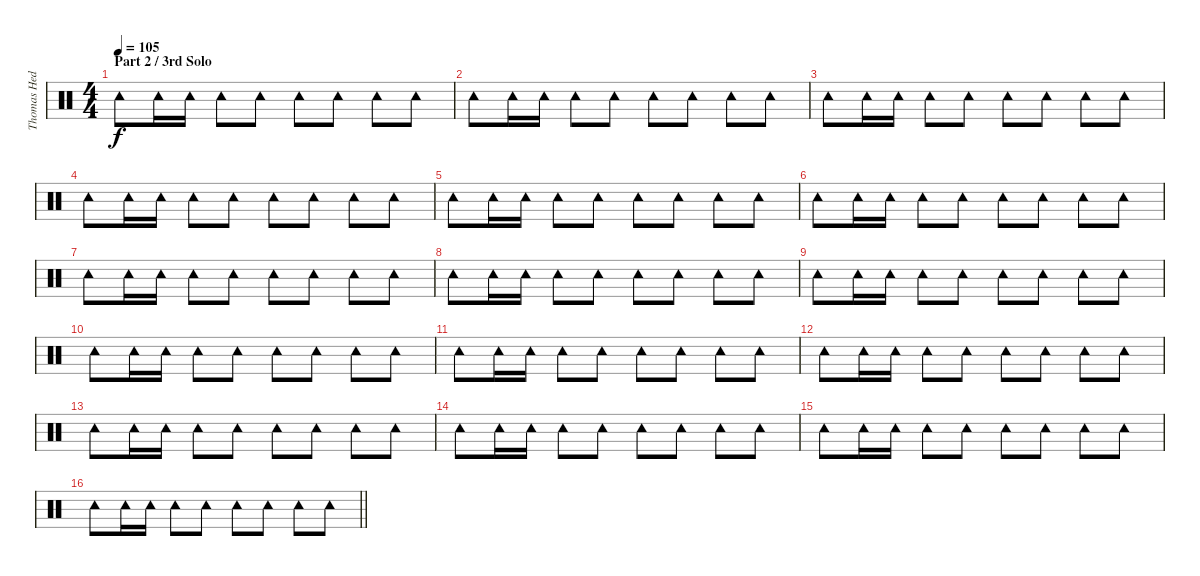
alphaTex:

\track ("Thomas Hedlund" "Thomas Hed") {instrument percussion}
\staff {score}
\articulation defaults
\ts (4 4)
\section ("" "Part 2 / 3rd Solo")
\tempo 105
\clef neutral
\ks c "Tambourine (hit)".8{dy f} "Tambourine (hit)".16 "Tambourine (hit)".16 "Tambourine (hit)".8 "Tambourine (hit)".8 "Tambourine (hit)".8 "Tambourine (hit)".8 "Tambourine (hit)".8 "Tambourine (hit)".8
|
"Tambourine (hit)".8 "Tambourine (hit)".16 "Tambourine (hit)".16 "Tambourine (hit)".8 "Tambourine (hit)".8 "Tambourine (hit)".8 "Tambourine (hit)".8 "Tambourine (hit)".8 "Tambourine (hit)".8 |
"Tambourine (hit)".8 "Tambourine (hit)".16 "Tambourine (hit)".16 "Tambourine (hit)".8 "Tambourine (hit)".8 "Tambourine (hit)".8 "Tambourine (hit)".8 "Tambourine (hit)".8 "Tambourine (hit)".8 |
"Tambourine (hit)".8 "Tambourine (hit)".16 "Tambourine (hit)".16 "Tambourine (hit)".8 "Tambourine (hit)".8 "Tambourine (hit)".8 "Tambourine (hit)".8 "Tambourine (hit)".8 "Tambourine (hit)".8 |
"Tambourine (hit)".8 "Tambourine (hit)".16 "Tambourine (hit)".16 "Tambourine (hit)".8 "Tambourine (hit)".8 "Tambourine (hit)".8 "Tambourine (hit)".8 "Tambourine (hit)".8 "Tambourine (hit)".8 |
"Tambourine (hit)".8 "Tambourine (hit)".16 "Tambourine (hit)".16 "Tambourine (hit)".8 "Tambourine (hit)".8 "Tambourine (hit)".8 "Tambourine (hit)".8 "Tambourine (hit)".8 "Tambourine (hit)".8 |
"Tambourine (hit)".8 "Tambourine (hit)".16 "Tambourine (hit)".16 "Tambourine (hit)".8 "Tambourine (hit)".8 "Tambourine (hit)".8 "Tambourine (hit)".8 "Tambourine (hit)".8 "Tambourine (hit)".8 |
"Tambourine (hit)".8 "Tambourine (hit)".16 "Tambourine (hit)".16 "Tambourine (hit)".8 "Tambourine (hit)".8 "Tambourine (hit)".8 "Tambourine (hit)".8 "Tambourine (hit)".8 "Tambourine (hit)".8 |
"Tambourine (hit)".8 "Tambourine (hit)".16 "Tambourine (hit)".16 "Tambourine (hit)".8 "Tambourine (hit)".8 "Tambourine (hit)".8 "Tambourine (hit)".8 "Tambourine (hit)".8 "Tambourine (hit)".8 |
"Tambourine (hit)".8 "Tambourine (hit)".16 "Tambourine (hit)".16 "Tambourine (hit)".8 "Tambourine (hit)".8 "Tambourine (hit)".8 "Tambourine (hit)".8 "Tambourine (hit)".8 "Tambourine (hit)".8 |
"Tambourine (hit)".8 "Tambourine (hit)".16 "Tambourine (hit)".16 "Tambourine (hit)".8 "Tambourine (hit)".8 "Tambourine (hit)".8 "Tambourine (hit)".8 "Tambourine (hit)".8 "Tambourine (hit)".8 |
"Tambourine (hit)".8 "Tambourine (hit)".16 "Tambourine (hit)".16 "Tambourine (hit)".8 "Tambourine (hit)".8 "Tambourine (hit)".8 "Tambourine (hit)".8 "Tambourine (hit)".8 "Tambourine (hit)".8 |
"Tambourine (hit)".8 "Tambourine (hit)".16 "Tambourine (hit)".16 "Tambourine (hit)".8 "Tambourine (hit)".8 "Tambourine (hit)".8 "Tambourine (hit)".8 "Tambourine (hit)".8 "Tambourine (hit)".8 |
"Tambourine (hit)".8 "Tambourine (hit)".16 "Tambourine (hit)".16 "Tambourine (hit)".8 "Tambourine (hit)".8 "Tambourine (hit)".8 "Tambourine (hit)".8 "Tambourine (hit)".8 "Tambourine (hit)".8 |
"Tambourine (hit)".8 "Tambourine (hit)".16 "Tambourine (hit)".16 "Tambourine (hit)".8 "Tambourine (hit)".8 "Tambourine (hit)".8 "Tambourine (hit)".8 "Tambourine (hit)".8 "Tambourine (hit)".8 |
\barLineRight lightlight "Tambourine (hit)".8 "Tambourine (hit)".16 "Tambourine (hit)".16 "Tambourine (hit)".8 "Tambourine (hit)".8 "Tambourine (hit)".8 "Tambourine (hit)".8 "Tambourine (hit)".8 "Tambourine (hit)".8
